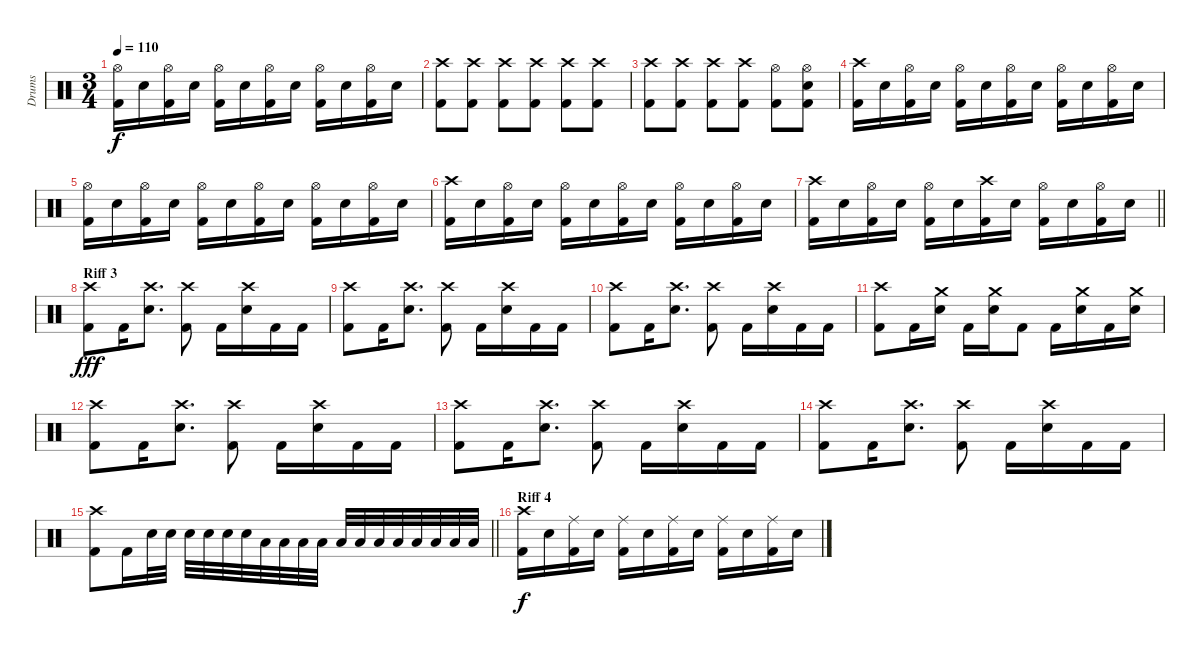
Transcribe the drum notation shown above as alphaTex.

\track ("Drums" "Drums") {instrument percussion}
\staff {score}
\articulation defaults
\ts (3 4)
\tempo 110
\clef neutral
\ks c
("Hi-Hat (open)" "Kick (hit) 2").16{dy f} "Electric Snare (hit)".16 ("Hi-Hat (open)" "Kick (hit) 2").16 "Electric Snare (hit)".16 ("Hi-Hat (open)" "Kick (hit) 2").16 "Electric Snare (hit)".16 ("Hi-Hat (open)" "Kick (hit) 2").16 "Electric Snare (hit)".16 ("Hi-Hat (open)" "Kick (hit) 2").16 "Electric Snare (hit)".16 ("Hi-Hat (open)" "Kick (hit) 2").16 "Electric Snare (hit)".16 |
("Crash high (hit)" "Kick (hit) 2").8 ("Crash high (hit)" "Kick (hit) 2").8 ("Crash high (hit)" "Kick (hit) 2").8 ("Crash high (hit)" "Kick (hit) 2").8 ("Crash high (hit)" "Kick (hit) 2").8 ("Crash high (hit)" "Kick (hit) 2").8 |
("Crash high (hit)" "Kick (hit) 2").8 ("Crash high (hit)" "Kick (hit) 2").8 ("Crash high (hit)" "Kick (hit) 2").8 ("Crash high (hit)" "Kick (hit) 2").8 ("Hi-Hat (open)" "Kick (hit) 2").8 ("Hi-Hat (open)" "Electric Snare (hit)" "Kick (hit) 2").8 |
("Crash high (hit)" "Kick (hit) 2").16 "Electric Snare (hit)".16 ("Hi-Hat (open)" "Kick (hit) 2").16 "Electric Snare (hit)".16 ("Hi-Hat (open)" "Kick (hit) 2").16 "Electric Snare (hit)".16 ("Hi-Hat (open)" "Kick (hit) 2").16 "Electric Snare (hit)".16 ("Hi-Hat (open)" "Kick (hit) 2").16 "Electric Snare (hit)".16 ("Hi-Hat (open)" "Kick (hit) 2").16 "Electric Snare (hit)".16 |
("Hi-Hat (open)" "Kick (hit) 2").16 "Electric Snare (hit)".16 ("Hi-Hat (open)" "Kick (hit) 2").16 "Electric Snare (hit)".16 ("Hi-Hat (open)" "Kick (hit) 2").16 "Electric Snare (hit)".16 ("Hi-Hat (open)" "Kick (hit) 2").16 "Electric Snare (hit)".16 ("Hi-Hat (open)" "Kick (hit) 2").16 "Electric Snare (hit)".16 ("Hi-Hat (open)" "Kick (hit) 2").16 "Electric Snare (hit)".16 |
("Crash high (hit)" "Kick (hit) 2").16 "Electric Snare (hit)".16 ("Hi-Hat (open)" "Kick (hit) 2").16 "Electric Snare (hit)".16 ("Hi-Hat (open)" "Kick (hit) 2").16 "Electric Snare (hit)".16 ("Hi-Hat (open)" "Kick (hit) 2").16 "Electric Snare (hit)".16 ("Hi-Hat (open)" "Kick (hit) 2").16 "Electric Snare (hit)".16 ("Hi-Hat (open)" "Kick (hit) 2").16 "Electric Snare (hit)".16 |
\barLineRight lightlight
("Crash high (hit)" "Kick (hit) 2").16 "Electric Snare (hit)".16 ("Hi-Hat (open)" "Kick (hit) 2").16 "Electric Snare (hit)".16 ("Hi-Hat (open)" "Kick (hit) 2").16 "Electric Snare (hit)".16 ("Crash high (hit)" "Kick (hit) 2").16 "Electric Snare (hit)".16 ("Hi-Hat (open)" "Kick (hit) 2").16 "Electric Snare (hit)".16 ("Hi-Hat (open)" "Kick (hit) 2").16 "Electric Snare (hit)".16 |
\section ("" "Riff 3")
("Crash high (hit)" "Kick (hit) 2").8{dy fff} "Kick (hit) 2".16 ("Crash high (hit)" "Electric Snare (hit)").8{d} ("Crash high (hit)" "Kick (hit) 2").8 "Kick (hit) 2".16 ("Crash high (hit)" "Electric Snare (hit)").16 "Kick (hit) 2".16 "Kick (hit) 2".16 |
("Crash high (hit)" "Kick (hit) 2").8 "Kick (hit) 2".16 ("Crash high (hit)" "Electric Snare (hit)").8{d} ("Crash high (hit)" "Kick (hit) 2").8 "Kick (hit) 2".16 ("Crash high (hit)" "Electric Snare (hit)").16 "Kick (hit) 2".16 "Kick (hit) 2".16 |
("Crash high (hit)" "Kick (hit) 2").8 "Kick (hit) 2".16 ("Crash high (hit)" "Electric Snare (hit)").8{d} ("Crash high (hit)" "Kick (hit) 2").8 "Kick (hit) 2".16 ("Crash high (hit)" "Electric Snare (hit)").16 "Kick (hit) 2".16 "Kick (hit) 2".16 |
("Crash high (hit)" "Kick (hit) 2").8 "Kick (hit) 2".16 ("Crash medium (hit)" "Electric Snare (hit)").16 "Kick (hit) 2".16 ("Crash medium (hit)" "Electric Snare (hit)").16 "Kick (hit) 2".8 "Kick (hit) 2".16 ("Crash medium (hit)" "Electric Snare (hit)").16 "Kick (hit) 2".16 ("Crash medium (hit)" "Electric Snare (hit)").16 |
("Crash high (hit)" "Kick (hit) 2").8 "Kick (hit) 2".16 ("Crash high (hit)" "Electric Snare (hit)").8{d} ("Crash high (hit)" "Kick (hit) 2").8 "Kick (hit) 2".16 ("Crash high (hit)" "Electric Snare (hit)").16 "Kick (hit) 2".16 "Kick (hit) 2".16 |
("Crash high (hit)" "Kick (hit) 2").8 "Kick (hit) 2".16 ("Crash high (hit)" "Electric Snare (hit)").8{d} ("Crash high (hit)" "Kick (hit) 2").8 "Kick (hit) 2".16 ("Crash high (hit)" "Electric Snare (hit)").16 "Kick (hit) 2".16 "Kick (hit) 2".16 |
("Crash high (hit)" "Kick (hit) 2").8 "Kick (hit) 2".16 ("Crash high (hit)" "Electric Snare (hit)").8{d} ("Crash high (hit)" "Kick (hit) 2").8 "Kick (hit) 2".16 ("Crash high (hit)" "Electric Snare (hit)").16 "Kick (hit) 2".16 "Kick (hit) 2".16 |
\barLineRight lightlight
("Crash high (hit)" "Kick (hit) 2").8 "Kick (hit) 2".16 "Electric Snare (hit)".32 "Electric Snare (hit)".32 "Electric Snare (hit)".32 "Electric Snare (hit)".32 "Electric Snare (hit)".32 "Electric Snare (hit)".32 "Low Tom (hit)".32 "Low Tom (hit)".32 "Low Tom (hit)".32 "Low Tom (hit)".32 "Low Tom (hit)".32 "Low Tom (hit)".32 "Low Floor Tom (hit)".32 "Low Floor Tom (hit)".32 "Low Floor Tom (hit)".32 "Low Floor Tom (hit)".32 "Low Floor Tom (hit)".32 "Low Floor Tom (hit)".32 |
\section ("" "Riff 4")
("Crash high (hit)" "Kick (hit) 2").16{dy f} "Electric Snare (hit)".16 ("Ride (middle)" "Kick (hit) 2").16 "Electric Snare (hit)".16 ("Ride (middle)" "Kick (hit) 2").16 "Electric Snare (hit)".16 ("Ride (middle)" "Kick (hit) 2").16 "Electric Snare (hit)".16 ("Ride (middle)" "Kick (hit) 2").16 "Electric Snare (hit)".16 ("Ride (middle)" "Kick (hit) 2").16 "Electric Snare (hit)".16
